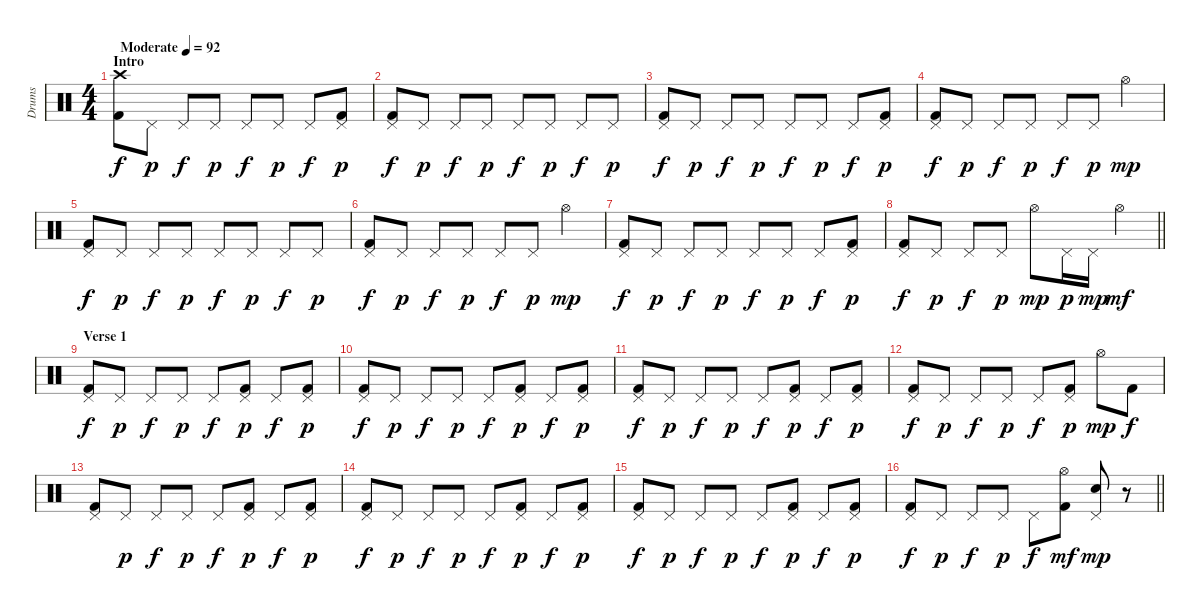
\track ("Drums" "Drums") {instrument percussion}
\staff {score}
\articulation defaults
\ts (4 4)
\section ("" "Intro")
\tempo (92 "Moderate")
\clef neutral
\ks aminor
("Crash high (hit)" "Kick (hit) 2").8{dy f} "Pedal Hi-Hat (hit)".8{dy p} "Pedal Hi-Hat (hit)".8{dy f} "Pedal Hi-Hat (hit)".8{dy p} "Pedal Hi-Hat (hit)".8{dy f} "Pedal Hi-Hat (hit)".8{dy p} "Pedal Hi-Hat (hit)".8{dy f} ("Pedal Hi-Hat (hit)" "Kick (hit) 2").8{dy p} |
("Pedal Hi-Hat (hit)" "Kick (hit) 2").8{dy f} "Pedal Hi-Hat (hit)".8{dy p} "Pedal Hi-Hat (hit)".8{dy f} "Pedal Hi-Hat (hit)".8{dy p} "Pedal Hi-Hat (hit)".8{dy f} "Pedal Hi-Hat (hit)".8{dy p} "Pedal Hi-Hat (hit)".8{dy f} "Pedal Hi-Hat (hit)".8{dy p} |
("Pedal Hi-Hat (hit)" "Kick (hit) 2").8{dy f} "Pedal Hi-Hat (hit)".8{dy p} "Pedal Hi-Hat (hit)".8{dy f} "Pedal Hi-Hat (hit)".8{dy p} "Pedal Hi-Hat (hit)".8{dy f} "Pedal Hi-Hat (hit)".8{dy p} "Pedal Hi-Hat (hit)".8{dy f} ("Pedal Hi-Hat (hit)" "Kick (hit) 2").8{dy p} |
("Pedal Hi-Hat (hit)" "Kick (hit) 2").8{dy f} "Pedal Hi-Hat (hit)".8{dy p} "Pedal Hi-Hat (hit)".8{dy f} "Pedal Hi-Hat (hit)".8{dy p} "Pedal Hi-Hat (hit)".8{dy f} "Pedal Hi-Hat (hit)".8{dy p} "Hi-Hat (open)".4{dy mp} |
("Pedal Hi-Hat (hit)" "Kick (hit) 2").8{dy f} "Pedal Hi-Hat (hit)".8{dy p} "Pedal Hi-Hat (hit)".8{dy f} "Pedal Hi-Hat (hit)".8{dy p} "Pedal Hi-Hat (hit)".8{dy f} "Pedal Hi-Hat (hit)".8{dy p} "Pedal Hi-Hat (hit)".8{dy f} "Pedal Hi-Hat (hit)".8{dy p} |
("Pedal Hi-Hat (hit)" "Kick (hit) 2").8{dy f} "Pedal Hi-Hat (hit)".8{dy p} "Pedal Hi-Hat (hit)".8{dy f} "Pedal Hi-Hat (hit)".8{dy p} "Pedal Hi-Hat (hit)".8{dy f} "Pedal Hi-Hat (hit)".8{dy p} "Hi-Hat (open)".4{dy mp} |
("Pedal Hi-Hat (hit)" "Kick (hit) 2").8{dy f} "Pedal Hi-Hat (hit)".8{dy p} "Pedal Hi-Hat (hit)".8{dy f} "Pedal Hi-Hat (hit)".8{dy p} "Pedal Hi-Hat (hit)".8{dy f} "Pedal Hi-Hat (hit)".8{dy p} "Pedal Hi-Hat (hit)".8{dy f} ("Pedal Hi-Hat (hit)" "Kick (hit) 2").8{dy p} |
\barLineRight lightlight
("Pedal Hi-Hat (hit)" "Kick (hit) 2").8{dy f} "Pedal Hi-Hat (hit)".8{dy p} "Pedal Hi-Hat (hit)".8{dy f} "Pedal Hi-Hat (hit)".8{dy p} "Hi-Hat (open)".8{dy mp} "Pedal Hi-Hat (hit)".16{dy p} "Pedal Hi-Hat (hit)".16{dy mp} "Hi-Hat (open)".4{dy mf} |
\section ("" "Verse 1")
("Pedal Hi-Hat (hit)" "Kick (hit) 2").8{dy f} "Pedal Hi-Hat (hit)".8{dy p} "Pedal Hi-Hat (hit)".8{dy f} "Pedal Hi-Hat (hit)".8{dy p} "Pedal Hi-Hat (hit)".8{dy f} ("Pedal Hi-Hat (hit)" "Kick (hit) 2").8{dy p} "Pedal Hi-Hat (hit)".8{dy f} ("Pedal Hi-Hat (hit)" "Kick (hit) 2").8{dy p} |
("Pedal Hi-Hat (hit)" "Kick (hit) 2").8{dy f} "Pedal Hi-Hat (hit)".8{dy p} "Pedal Hi-Hat (hit)".8{dy f} "Pedal Hi-Hat (hit)".8{dy p} "Pedal Hi-Hat (hit)".8{dy f} ("Pedal Hi-Hat (hit)" "Kick (hit) 2").8{dy p} "Pedal Hi-Hat (hit)".8{dy f} ("Pedal Hi-Hat (hit)" "Kick (hit) 2").8{dy p} |
("Pedal Hi-Hat (hit)" "Kick (hit) 2").8{dy f} "Pedal Hi-Hat (hit)".8{dy p} "Pedal Hi-Hat (hit)".8{dy f} "Pedal Hi-Hat (hit)".8{dy p} "Pedal Hi-Hat (hit)".8{dy f} ("Pedal Hi-Hat (hit)" "Kick (hit) 2").8{dy p} "Pedal Hi-Hat (hit)".8{dy f} ("Pedal Hi-Hat (hit)" "Kick (hit) 2").8{dy p} |
("Pedal Hi-Hat (hit)" "Kick (hit) 2").8{dy f} "Pedal Hi-Hat (hit)".8{dy p} "Pedal Hi-Hat (hit)".8{dy f} "Pedal Hi-Hat (hit)".8{dy p} "Pedal Hi-Hat (hit)".8{dy f} ("Pedal Hi-Hat (hit)" "Kick (hit) 2").8{dy p} "Hi-Hat (open)".8{dy mp} "Kick (hit) 2".8{dy f} |
("Pedal Hi-Hat (hit)" "Kick (hit) 2").8 "Pedal Hi-Hat (hit)".8{dy p} "Pedal Hi-Hat (hit)".8{dy f} "Pedal Hi-Hat (hit)".8{dy p} "Pedal Hi-Hat (hit)".8{dy f} ("Pedal Hi-Hat (hit)" "Kick (hit) 2").8{dy p} "Pedal Hi-Hat (hit)".8{dy f} ("Pedal Hi-Hat (hit)" "Kick (hit) 2").8{dy p} |
("Pedal Hi-Hat (hit)" "Kick (hit) 2").8{dy f} "Pedal Hi-Hat (hit)".8{dy p} "Pedal Hi-Hat (hit)".8{dy f} "Pedal Hi-Hat (hit)".8{dy p} "Pedal Hi-Hat (hit)".8{dy f} ("Pedal Hi-Hat (hit)" "Kick (hit) 2").8{dy p} "Pedal Hi-Hat (hit)".8{dy f} ("Pedal Hi-Hat (hit)" "Kick (hit) 2").8{dy p} |
("Pedal Hi-Hat (hit)" "Kick (hit) 2").8{dy f} "Pedal Hi-Hat (hit)".8{dy p} "Pedal Hi-Hat (hit)".8{dy f} "Pedal Hi-Hat (hit)".8{dy p} "Pedal Hi-Hat (hit)".8{dy f} ("Pedal Hi-Hat (hit)" "Kick (hit) 2").8{dy p} "Pedal Hi-Hat (hit)".8{dy f} ("Pedal Hi-Hat (hit)" "Kick (hit) 2").8{dy p} |
\barLineRight lightlight
("Pedal Hi-Hat (hit)" "Kick (hit) 2").8{dy f} "Pedal Hi-Hat (hit)".8{dy p} "Pedal Hi-Hat (hit)".8{dy f} "Pedal Hi-Hat (hit)".8{dy p} "Pedal Hi-Hat (hit)".8{dy f} ("Hi-Hat (open)" "Kick (hit) 2").8{dy mf} ("Pedal Hi-Hat (hit)" "Electric Snare (hit)").8{dy mp} r.8
